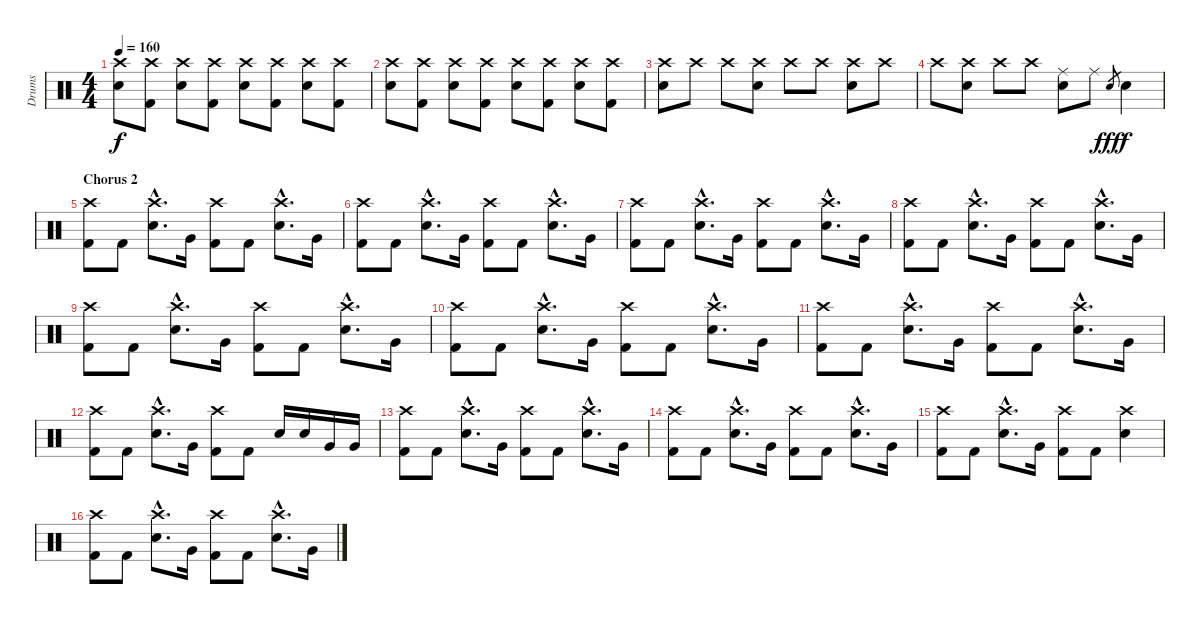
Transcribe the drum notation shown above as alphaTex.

\track ("Drums" "Drums") {instrument percussion}
\staff {score}
\articulation defaults
\ts (4 4)
\tempo 160
\clef neutral
\ks c
("Crash high (hit)" "Electric Snare (hit)").8{dy f} ("Crash high (hit)" "Kick (hit) 2").8 ("Crash high (hit)" "Electric Snare (hit)").8 ("Crash high (hit)" "Kick (hit) 2").8 ("Crash high (hit)" "Electric Snare (hit)").8 ("Crash high (hit)" "Kick (hit) 2").8 ("Crash high (hit)" "Electric Snare (hit)").8 ("Crash high (hit)" "Kick (hit) 2").8 |
("Crash high (hit)" "Electric Snare (hit)").8 ("Crash high (hit)" "Kick (hit) 2").8 ("Crash high (hit)" "Electric Snare (hit)").8 ("Crash high (hit)" "Kick (hit) 2").8 ("Crash high (hit)" "Electric Snare (hit)").8 ("Crash high (hit)" "Kick (hit) 2").8 ("Crash high (hit)" "Electric Snare (hit)").8 ("Crash high (hit)" "Kick (hit) 2").8 |
("Crash high (hit)" "Electric Snare (hit)").8 "Crash high (hit)".8 "Crash high (hit)".8 ("Crash high (hit)" "Electric Snare (hit)").8 "Crash high (hit)".8 "Crash high (hit)".8 ("Crash high (hit)" "Electric Snare (hit)").8 "Crash high (hit)".8 |
"Crash high (hit)".8 ("Crash high (hit)" "Electric Snare (hit)").8 "Crash high (hit)".8 "Crash high (hit)".8 ("Ride (middle)" "Electric Snare (hit)").8 "Ride (middle)".8 "Electric Snare (hit)".8{gr dy fff} "Electric Snare (hit)".4{dy f} |
\section ("" "Chorus 2")
("Crash high (hit)" "Kick (hit) 2").8 "Kick (hit) 2".8 ("Crash high (hit)"{hac} "Electric Snare (hit)"{hac}).8{d} "Very Low Tom (hit)".16 ("Crash high (hit)" "Kick (hit) 2").8 "Kick (hit) 2".8 ("Crash high (hit)"{hac} "Electric Snare (hit)"{hac}).8{d} "Very Low Tom (hit)".16 |
("Crash high (hit)" "Kick (hit) 2").8 "Kick (hit) 2".8 ("Crash high (hit)"{hac} "Electric Snare (hit)"{hac}).8{d} "Very Low Tom (hit)".16 ("Crash high (hit)" "Kick (hit) 2").8 "Kick (hit) 2".8 ("Crash high (hit)"{hac} "Electric Snare (hit)"{hac}).8{d} "Very Low Tom (hit)".16 |
("Crash high (hit)" "Kick (hit) 2").8 "Kick (hit) 2".8 ("Crash high (hit)"{hac} "Electric Snare (hit)"{hac}).8{d} "Very Low Tom (hit)".16 ("Crash high (hit)" "Kick (hit) 2").8 "Kick (hit) 2".8 ("Crash high (hit)"{hac} "Electric Snare (hit)"{hac}).8{d} "Very Low Tom (hit)".16 |
("Crash high (hit)" "Kick (hit) 2").8 "Kick (hit) 2".8 ("Crash high (hit)"{hac} "Electric Snare (hit)"{hac}).8{d} "Very Low Tom (hit)".16 ("Crash high (hit)" "Kick (hit) 2").8 "Kick (hit) 2".8 ("Crash high (hit)"{hac} "Electric Snare (hit)"{hac}).8{d} "Very Low Tom (hit)".16 |
("Crash high (hit)" "Kick (hit) 2").8 "Kick (hit) 2".8 ("Crash high (hit)"{hac} "Electric Snare (hit)"{hac}).8{d} "Very Low Tom (hit)".16 ("Crash high (hit)" "Kick (hit) 2").8 "Kick (hit) 2".8 ("Crash high (hit)"{hac} "Electric Snare (hit)"{hac}).8{d} "Very Low Tom (hit)".16 |
("Crash high (hit)" "Kick (hit) 2").8 "Kick (hit) 2".8 ("Crash high (hit)"{hac} "Electric Snare (hit)"{hac}).8{d} "Very Low Tom (hit)".16 ("Crash high (hit)" "Kick (hit) 2").8 "Kick (hit) 2".8 ("Crash high (hit)"{hac} "Electric Snare (hit)"{hac}).8{d} "Very Low Tom (hit)".16 |
("Crash high (hit)" "Kick (hit) 2").8 "Kick (hit) 2".8 ("Crash high (hit)"{hac} "Electric Snare (hit)"{hac}).8{d} "Very Low Tom (hit)".16 ("Crash high (hit)" "Kick (hit) 2").8 "Kick (hit) 2".8 ("Crash high (hit)"{hac} "Electric Snare (hit)"{hac}).8{d} "Very Low Tom (hit)".16 |
("Crash high (hit)" "Kick (hit) 2").8 "Kick (hit) 2".8 ("Crash high (hit)"{hac} "Electric Snare (hit)"{hac}).8{d} "Very Low Tom (hit)".16 ("Crash high (hit)" "Kick (hit) 2").8 "Kick (hit) 2".8 "Electric Snare (hit)".16 "Electric Snare (hit)".16 "Very Low Tom (hit)".16 "Very Low Tom (hit)".16 |
("Crash high (hit)" "Kick (hit) 2").8 "Kick (hit) 2".8 ("Crash high (hit)"{hac} "Electric Snare (hit)"{hac}).8{d} "Very Low Tom (hit)".16 ("Crash high (hit)" "Kick (hit) 2").8 "Kick (hit) 2".8 ("Crash high (hit)"{hac} "Electric Snare (hit)"{hac}).8{d} "Very Low Tom (hit)".16 |
("Crash high (hit)" "Kick (hit) 2").8 "Kick (hit) 2".8 ("Crash high (hit)"{hac} "Electric Snare (hit)"{hac}).8{d} "Very Low Tom (hit)".16 ("Crash high (hit)" "Kick (hit) 2").8 "Kick (hit) 2".8 ("Crash high (hit)"{hac} "Electric Snare (hit)"{hac}).8{d} "Very Low Tom (hit)".16 |
("Crash high (hit)" "Kick (hit) 2").8 "Kick (hit) 2".8 ("Crash high (hit)"{hac} "Electric Snare (hit)"{hac}).8{d} "Very Low Tom (hit)".16 ("Crash high (hit)" "Kick (hit) 2").8 "Kick (hit) 2".8 ("Crash high (hit)" "Electric Snare (hit)").4 |
("Crash high (hit)" "Kick (hit) 2").8 "Kick (hit) 2".8 ("Crash high (hit)"{hac} "Electric Snare (hit)"{hac}).8{d} "Very Low Tom (hit)".16 ("Crash high (hit)" "Kick (hit) 2").8 "Kick (hit) 2".8 ("Crash high (hit)"{hac} "Electric Snare (hit)"{hac}).8{d} "Very Low Tom (hit)".16
